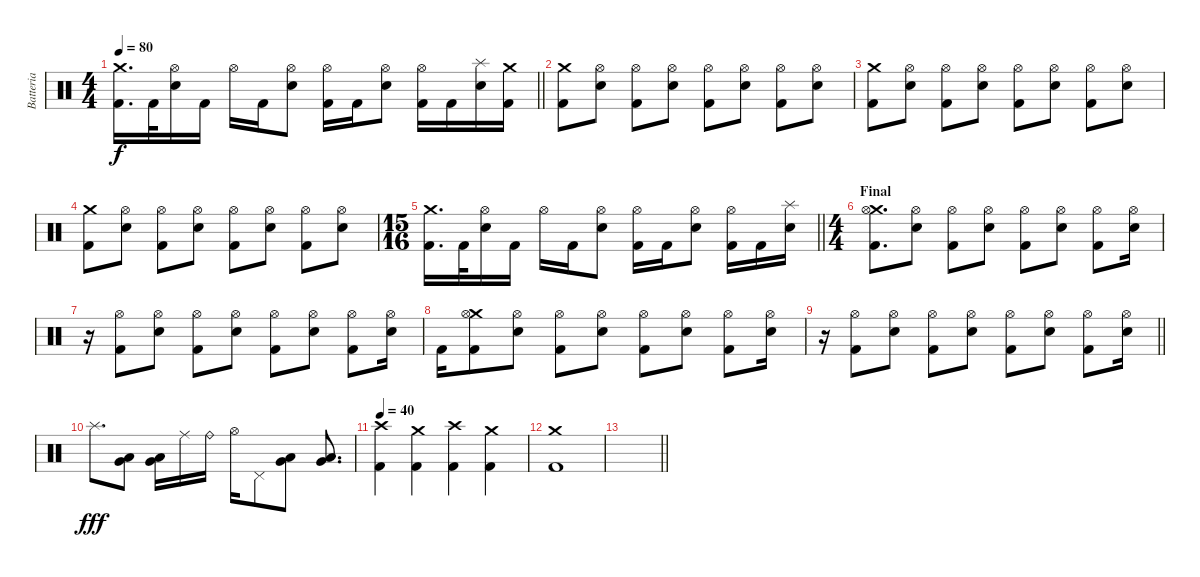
\track ("Batteria" "Batteria") {instrument percussion}
\staff {score}
\articulation defaults
\ts (4 4)
\tempo 80
\clef neutral
\barLineRight lightlight
\ks c
("Crash medium (hit)" "Kick (hit) 2").16{d dy f} "Kick (hit) 2".32 ("Hi-Hat (open)" "Electric Snare (hit)").16 "Kick (hit) 2".16 "Hi-Hat (open)".16 "Kick (hit) 2".16 ("Hi-Hat (open)" "Electric Snare (hit)").8 ("Hi-Hat (open)" "Kick (hit) 2").16 "Kick (hit) 2".16 ("Hi-Hat (open)" "Electric Snare (hit)").8 ("Hi-Hat (open)" "Kick (hit) 2").16 "Kick (hit) 2".16 ("Splash (hit)" "Electric Snare (hit)").16 ("Crash medium (hit)" "Kick (hit) 2").16 |
("Crash medium (hit)" "Kick (hit) 2").8 ("Hi-Hat (open)" "Electric Snare (hit)").8 ("Hi-Hat (open)" "Kick (hit) 2").8 ("Hi-Hat (open)" "Electric Snare (hit)").8 ("Hi-Hat (open)" "Kick (hit) 2").8 ("Hi-Hat (open)" "Electric Snare (hit)").8 ("Hi-Hat (open)" "Kick (hit) 2").8 ("Hi-Hat (open)" "Electric Snare (hit)").8 |
("Crash medium (hit)" "Kick (hit) 2").8 ("Hi-Hat (open)" "Electric Snare (hit)").8 ("Hi-Hat (open)" "Kick (hit) 2").8 ("Hi-Hat (open)" "Electric Snare (hit)").8 ("Hi-Hat (open)" "Kick (hit) 2").8 ("Hi-Hat (open)" "Electric Snare (hit)").8 ("Hi-Hat (open)" "Kick (hit) 2").8 ("Hi-Hat (open)" "Electric Snare (hit)").8 |
("Crash medium (hit)" "Kick (hit) 2").8 ("Hi-Hat (open)" "Electric Snare (hit)").8 ("Hi-Hat (open)" "Kick (hit) 2").8 ("Hi-Hat (open)" "Electric Snare (hit)").8 ("Hi-Hat (open)" "Kick (hit) 2").8 ("Hi-Hat (open)" "Electric Snare (hit)").8 ("Hi-Hat (open)" "Kick (hit) 2").8 ("Hi-Hat (open)" "Electric Snare (hit)").8 |
\ts (15 16)
\barLineRight lightlight
("Crash medium (hit)" "Kick (hit) 2").16{d} "Kick (hit) 2".32 ("Hi-Hat (open)" "Electric Snare (hit)").16 "Kick (hit) 2".16 "Hi-Hat (open)".16 "Kick (hit) 2".16 ("Hi-Hat (open)" "Electric Snare (hit)").8 ("Hi-Hat (open)" "Kick (hit) 2").16 "Kick (hit) 2".16 ("Hi-Hat (open)" "Electric Snare (hit)").8 ("Hi-Hat (open)" "Kick (hit) 2").16 "Kick (hit) 2".16 ("Splash (hit)" "Electric Snare (hit)").16 |
\ts (4 4)
\section ("" "Final")
("Crash medium (hit)" "Hi-Hat (open)" "Kick (hit) 2").8{d} ("Hi-Hat (open)" "Electric Snare (hit)").8 ("Hi-Hat (open)" "Kick (hit) 2").8 ("Hi-Hat (open)" "Electric Snare (hit)").8 ("Hi-Hat (open)" "Kick (hit) 2").8 ("Hi-Hat (open)" "Electric Snare (hit)").8 ("Hi-Hat (open)" "Kick (hit) 2").8 ("Hi-Hat (open)" "Electric Snare (hit)").16 |
r.16 ("Hi-Hat (open)" "Kick (hit) 2").8 ("Hi-Hat (open)" "Electric Snare (hit)").8 ("Hi-Hat (open)" "Kick (hit) 2").8 ("Hi-Hat (open)" "Electric Snare (hit)").8 ("Hi-Hat (open)" "Kick (hit) 2").8 ("Hi-Hat (open)" "Electric Snare (hit)").8 ("Hi-Hat (open)" "Kick (hit) 2").8 ("Hi-Hat (open)" "Electric Snare (hit)").16 |
"Kick (hit) 2".16 ("Crash medium (hit)" "Hi-Hat (open)" "Kick (hit) 2").8 ("Hi-Hat (open)" "Electric Snare (hit)").8 ("Hi-Hat (open)" "Kick (hit) 2").8 ("Hi-Hat (open)" "Electric Snare (hit)").8 ("Hi-Hat (open)" "Kick (hit) 2").8 ("Hi-Hat (open)" "Electric Snare (hit)").8 ("Hi-Hat (open)" "Kick (hit) 2").8 ("Hi-Hat (open)" "Electric Snare (hit)").16 |
\barLineRight lightlight
r.16 ("Hi-Hat (open)" "Kick (hit) 2").8 ("Hi-Hat (open)" "Electric Snare (hit)").8 ("Hi-Hat (open)" "Kick (hit) 2").8 ("Hi-Hat (open)" "Electric Snare (hit)").8 ("Hi-Hat (open)" "Kick (hit) 2").8 ("Hi-Hat (open)" "Electric Snare (hit)").8 ("Hi-Hat (open)" "Kick (hit) 2").8 ("Hi-Hat (open)" "Electric Snare (hit)").16 |
"Splash (hit)".8{d dy fff} ("Very Low Tom (hit)" "Low Floor Tom (hit)").8 ("Very Low Tom (hit)" "Low Floor Tom (hit)").16 "Ride (middle)".16 "Ride (bell)".16 "Hi-Hat (open)".16 "Pedal Hi-Hat (hit)".8 ("Very Low Tom (hit)" "Low Floor Tom (hit)").8 ("Very Low Tom (hit)" "Low Floor Tom (hit)").8{d} |
\tempo 40
("Crash high (hit)" "Kick (hit) 2").4 ("Crash medium (hit)" "Kick (hit) 2").4 ("Crash high (hit)" "Kick (hit) 2").4 ("Crash medium (hit)" "Kick (hit) 2").4 |
("Crash medium (hit)" "Kick (hit) 2").1 |
\barLineRight lightlight
